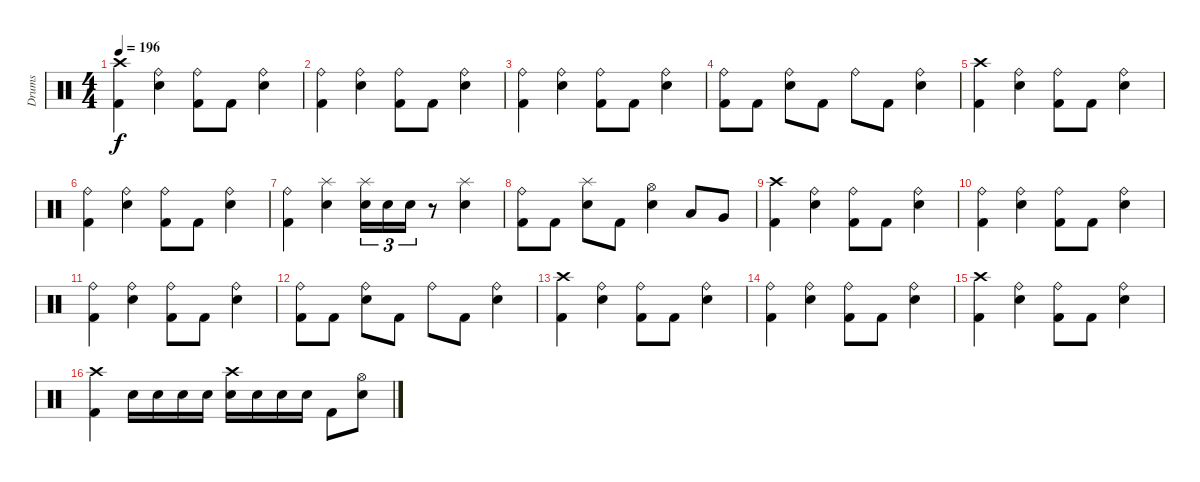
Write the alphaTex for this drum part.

\track ("Drums" "Drums") {instrument percussion}
\staff {score}
\articulation defaults
\ts (4 4)
\tempo 196
\clef neutral
\ks c
("Crash high (hit)" "Kick (hit) 2").4{dy f} ("Ride (bell)" "Snare (hit) 2").4 ("Ride (bell)" "Kick (hit) 2").8 "Kick (hit) 2".8 ("Ride (bell)" "Snare (hit) 2").4 |
("Ride (bell)" "Kick (hit) 2").4 ("Ride (bell)" "Snare (hit) 2").4 ("Ride (bell)" "Kick (hit) 2").8 "Kick (hit) 2".8 ("Ride (bell)" "Snare (hit) 2").4 |
("Ride (bell)" "Kick (hit) 2").4 ("Ride (bell)" "Snare (hit) 2").4 ("Ride (bell)" "Kick (hit) 2").8 "Kick (hit) 2".8 ("Ride (bell)" "Snare (hit) 2").4 |
("Ride (bell)" "Kick (hit) 2").8 "Kick (hit) 2".8 ("Ride (bell)" "Snare (hit) 2").8 "Kick (hit) 2".8 "Ride (bell)".8 "Kick (hit) 2".8 ("Ride (bell)" "Snare (hit) 2").4 |
("Crash high (hit)" "Kick (hit) 2").4 ("Ride (bell)" "Snare (hit) 2").4 ("Ride (bell)" "Kick (hit) 2").8 "Kick (hit) 2".8 ("Ride (bell)" "Snare (hit) 2").4 |
("Ride (bell)" "Kick (hit) 2").4 ("Ride (bell)" "Snare (hit) 2").4 ("Ride (bell)" "Kick (hit) 2").8 "Kick (hit) 2".8 ("Ride (bell)" "Snare (hit) 2").4 |
("Ride (bell)" "Kick (hit) 2").4 ("Splash (hit)" "Snare (hit) 2").4 ("Splash (hit)" "Snare (hit) 2").16{tu (3 2)} "Snare (hit) 2".16{tu (3 2)} "Snare (hit) 2".16{tu (3 2)} r.8 ("Splash (hit)" "Snare (hit) 2").4 |
("Ride (bell)" "Kick (hit) 2").8 "Kick (hit) 2".8 ("Splash (hit)" "Snare (hit) 2").8 "Kick (hit) 2".8 ("Hi-Hat (open)" "Snare (hit) 2").4 "Low Tom (hit)".8 "Very Low Tom (hit)".8 |
("Crash high (hit)" "Kick (hit) 2").4 ("Ride (bell)" "Snare (hit) 2").4 ("Ride (bell)" "Kick (hit) 2").8 "Kick (hit) 2".8 ("Ride (bell)" "Snare (hit) 2").4 |
("Ride (bell)" "Kick (hit) 2").4 ("Ride (bell)" "Snare (hit) 2").4 ("Ride (bell)" "Kick (hit) 2").8 "Kick (hit) 2".8 ("Ride (bell)" "Snare (hit) 2").4 |
("Ride (bell)" "Kick (hit) 2").4 ("Ride (bell)" "Snare (hit) 2").4 ("Ride (bell)" "Kick (hit) 2").8 "Kick (hit) 2".8 ("Ride (bell)" "Snare (hit) 2").4 |
("Ride (bell)" "Kick (hit) 2").8 "Kick (hit) 2".8 ("Ride (bell)" "Snare (hit) 2").8 "Kick (hit) 2".8 "Ride (bell)".8 "Kick (hit) 2".8 ("Ride (bell)" "Snare (hit) 2").4 |
("Crash high (hit)" "Kick (hit) 2").4 ("Ride (bell)" "Snare (hit) 2").4 ("Ride (bell)" "Kick (hit) 2").8 "Kick (hit) 2".8 ("Ride (bell)" "Snare (hit) 2").4 |
("Ride (bell)" "Kick (hit) 2").4 ("Ride (bell)" "Snare (hit) 2").4 ("Ride (bell)" "Kick (hit) 2").8 "Kick (hit) 2".8 ("Ride (bell)" "Snare (hit) 2").4 |
("Crash high (hit)" "Kick (hit) 2").4 ("Ride (bell)" "Snare (hit) 2").4 ("Ride (bell)" "Kick (hit) 2").8 "Kick (hit) 2".8 ("Ride (bell)" "Snare (hit) 2").4 |
("Crash high (hit)" "Kick (hit) 2").4 "Snare (hit) 2".16 "Snare (hit) 2".16 "Snare (hit) 2".16 "Snare (hit) 2".16 ("Crash high (hit)" "Electric Snare (hit)").16 "Electric Snare (hit)".16 "Electric Snare (hit)".16 "Electric Snare (hit)".16 "Kick (hit) 2".8 ("Hi-Hat (open)" "Electric Snare (hit)").8
